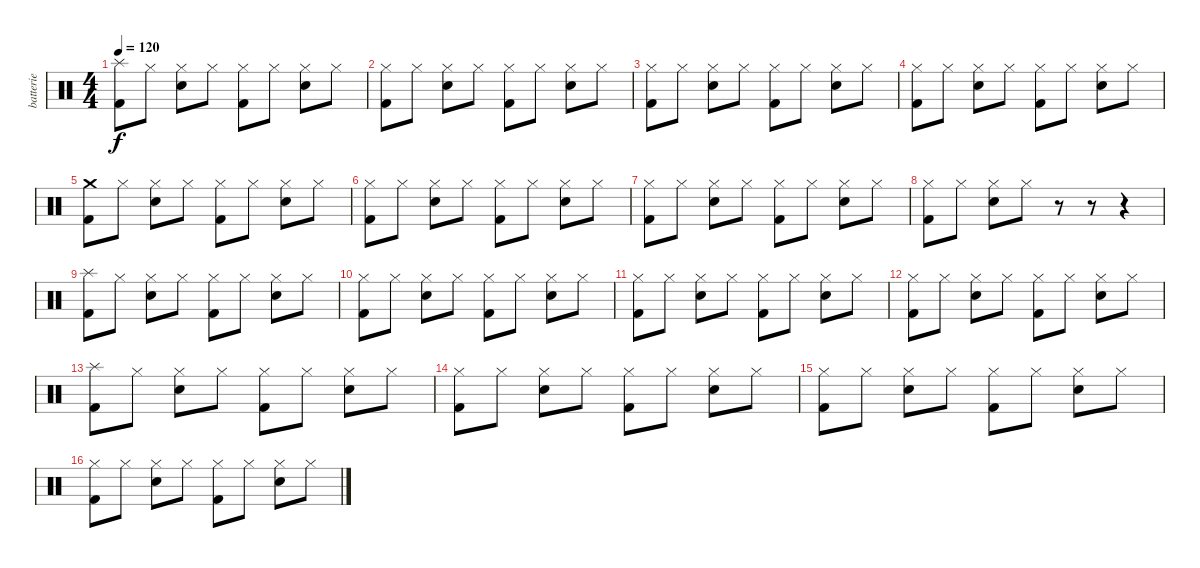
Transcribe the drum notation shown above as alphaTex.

\track ("batterie" "batterie") {instrument percussion}
\staff {score}
\articulation defaults
\ts (4 4)
\tempo 120
\clef neutral
\ks c
("Kick (hit) 2" "Splash (hit)").8{dy f} "Hi-Hat (closed)".8 ("Snare (hit) 2" "Hi-Hat (closed)").8 "Hi-Hat (closed)".8 ("Kick (hit) 2" "Hi-Hat (closed)").8 "Hi-Hat (closed)".8 ("Snare (hit) 2" "Hi-Hat (closed)").8 "Hi-Hat (closed)".8 |
("Kick (hit) 2" "Hi-Hat (closed)").8 "Hi-Hat (closed)".8 ("Snare (hit) 2" "Hi-Hat (closed)").8 "Hi-Hat (closed)".8 ("Kick (hit) 2" "Hi-Hat (closed)").8 "Hi-Hat (closed)".8 ("Snare (hit) 2" "Hi-Hat (closed)").8 "Hi-Hat (closed)".8 |
("Kick (hit) 2" "Hi-Hat (closed)").8 "Hi-Hat (closed)".8 ("Snare (hit) 2" "Hi-Hat (closed)").8 "Hi-Hat (closed)".8 ("Kick (hit) 2" "Hi-Hat (closed)").8 "Hi-Hat (closed)".8 ("Snare (hit) 2" "Hi-Hat (closed)").8 "Hi-Hat (closed)".8 |
("Kick (hit) 2" "Hi-Hat (closed)").8 "Hi-Hat (closed)".8 ("Snare (hit) 2" "Hi-Hat (closed)").8 "Hi-Hat (closed)".8 ("Kick (hit) 2" "Hi-Hat (closed)").8 "Hi-Hat (closed)".8 ("Snare (hit) 2" "Hi-Hat (closed)").8 "Hi-Hat (closed)".8 |
("Kick (hit) 2" "Crash medium (hit)").8 "Hi-Hat (closed)".8 ("Snare (hit) 2" "Hi-Hat (closed)").8 "Hi-Hat (closed)".8 ("Kick (hit) 2" "Hi-Hat (closed)").8 "Hi-Hat (closed)".8 ("Snare (hit) 2" "Hi-Hat (closed)").8 "Hi-Hat (closed)".8 |
("Kick (hit) 2" "Hi-Hat (closed)").8 "Hi-Hat (closed)".8 ("Snare (hit) 2" "Hi-Hat (closed)").8 "Hi-Hat (closed)".8 ("Kick (hit) 2" "Hi-Hat (closed)").8 "Hi-Hat (closed)".8 ("Snare (hit) 2" "Hi-Hat (closed)").8 "Hi-Hat (closed)".8 |
("Kick (hit) 2" "Hi-Hat (closed)").8 "Hi-Hat (closed)".8 ("Snare (hit) 2" "Hi-Hat (closed)").8 "Hi-Hat (closed)".8 ("Kick (hit) 2" "Hi-Hat (closed)").8 "Hi-Hat (closed)".8 ("Snare (hit) 2" "Hi-Hat (closed)").8 "Hi-Hat (closed)".8 |
("Kick (hit) 2" "Hi-Hat (closed)").8 "Hi-Hat (closed)".8 ("Snare (hit) 2" "Hi-Hat (closed)").8 "Hi-Hat (closed)".8 r.8 r.8 r.4 |
("Kick (hit) 2" "Splash (hit)").8 "Hi-Hat (closed)".8 ("Snare (hit) 2" "Hi-Hat (closed)").8 "Hi-Hat (closed)".8 ("Kick (hit) 2" "Hi-Hat (closed)").8 "Hi-Hat (closed)".8 ("Snare (hit) 2" "Hi-Hat (closed)").8 "Hi-Hat (closed)".8 |
("Kick (hit) 2" "Hi-Hat (closed)").8 "Hi-Hat (closed)".8 ("Snare (hit) 2" "Hi-Hat (closed)").8 "Hi-Hat (closed)".8 ("Kick (hit) 2" "Hi-Hat (closed)").8 "Hi-Hat (closed)".8 ("Snare (hit) 2" "Hi-Hat (closed)").8 "Hi-Hat (closed)".8 |
("Kick (hit) 2" "Hi-Hat (closed)").8 "Hi-Hat (closed)".8 ("Snare (hit) 2" "Hi-Hat (closed)").8 "Hi-Hat (closed)".8 ("Kick (hit) 2" "Hi-Hat (closed)").8 "Hi-Hat (closed)".8 ("Snare (hit) 2" "Hi-Hat (closed)").8 "Hi-Hat (closed)".8 |
("Kick (hit) 2" "Hi-Hat (closed)").8 "Hi-Hat (closed)".8 ("Snare (hit) 2" "Hi-Hat (closed)").8 "Hi-Hat (closed)".8 ("Kick (hit) 2" "Hi-Hat (closed)").8 "Hi-Hat (closed)".8 ("Snare (hit) 2" "Hi-Hat (closed)").8 "Hi-Hat (closed)".8 |
("Kick (hit) 2" "Splash (hit)").8 "Hi-Hat (closed)".8 ("Snare (hit) 2" "Hi-Hat (closed)").8 "Hi-Hat (closed)".8 ("Kick (hit) 2" "Hi-Hat (closed)").8 "Hi-Hat (closed)".8 ("Snare (hit) 2" "Hi-Hat (closed)").8 "Hi-Hat (closed)".8 |
("Kick (hit) 2" "Hi-Hat (closed)").8 "Hi-Hat (closed)".8 ("Snare (hit) 2" "Hi-Hat (closed)").8 "Hi-Hat (closed)".8 ("Kick (hit) 2" "Hi-Hat (closed)").8 "Hi-Hat (closed)".8 ("Snare (hit) 2" "Hi-Hat (closed)").8 "Hi-Hat (closed)".8 |
("Kick (hit) 2" "Hi-Hat (closed)").8 "Hi-Hat (closed)".8 ("Snare (hit) 2" "Hi-Hat (closed)").8 "Hi-Hat (closed)".8 ("Kick (hit) 2" "Hi-Hat (closed)").8 "Hi-Hat (closed)".8 ("Snare (hit) 2" "Hi-Hat (closed)").8 "Hi-Hat (closed)".8 |
("Kick (hit) 2" "Hi-Hat (closed)").8 "Hi-Hat (closed)".8 ("Snare (hit) 2" "Hi-Hat (closed)").8 "Hi-Hat (closed)".8 ("Kick (hit) 2" "Hi-Hat (closed)").8 "Hi-Hat (closed)".8 ("Snare (hit) 2" "Hi-Hat (closed)").8 "Hi-Hat (closed)".8
